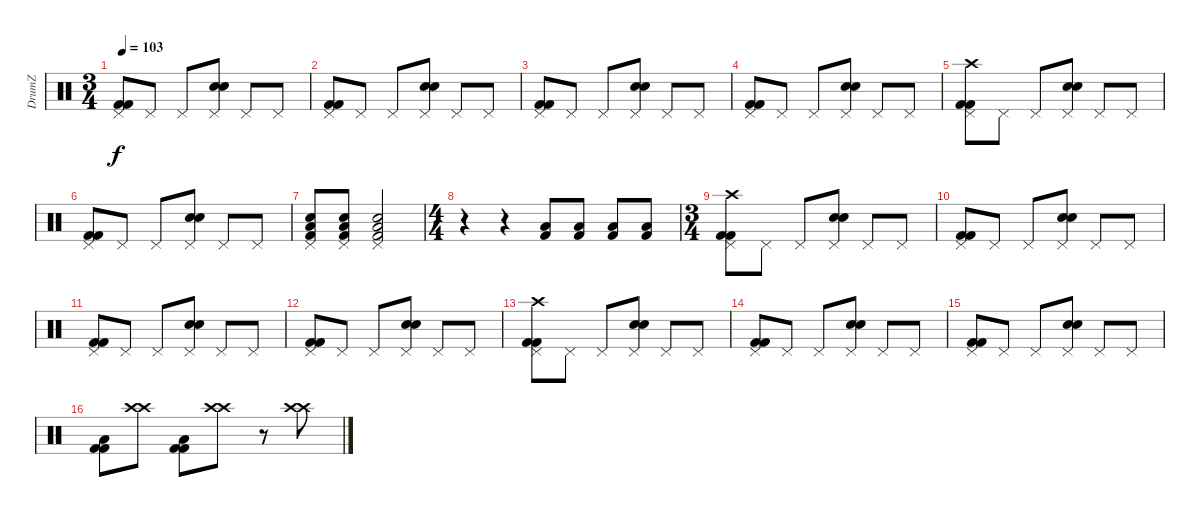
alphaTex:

\track ("DrumZ" "DrumZ") {instrument percussion}
\staff {score}
\articulation defaults
\ts (3 4)
\tempo 103
\clef neutral
\ks c
("Pedal Hi-Hat (hit)" "Kick (hit) 2" "Kick (hit) 2").8{dy f} "Pedal Hi-Hat (hit)".8 "Pedal Hi-Hat (hit)".8 ("Pedal Hi-Hat (hit)" "Electric Snare (hit)" "Electric Snare (hit)").8 "Pedal Hi-Hat (hit)".8 "Pedal Hi-Hat (hit)".8 |
("Pedal Hi-Hat (hit)" "Kick (hit) 2" "Kick (hit) 2").8 "Pedal Hi-Hat (hit)".8 "Pedal Hi-Hat (hit)".8 ("Pedal Hi-Hat (hit)" "Electric Snare (hit)" "Electric Snare (hit)").8 "Pedal Hi-Hat (hit)".8 "Pedal Hi-Hat (hit)".8 |
("Pedal Hi-Hat (hit)" "Kick (hit) 2" "Kick (hit) 2").8 "Pedal Hi-Hat (hit)".8 "Pedal Hi-Hat (hit)".8 ("Pedal Hi-Hat (hit)" "Electric Snare (hit)" "Electric Snare (hit)").8 "Pedal Hi-Hat (hit)".8 "Pedal Hi-Hat (hit)".8 |
("Pedal Hi-Hat (hit)" "Kick (hit) 2" "Kick (hit) 2").8 "Pedal Hi-Hat (hit)".8 "Pedal Hi-Hat (hit)".8 ("Pedal Hi-Hat (hit)" "Electric Snare (hit)" "Electric Snare (hit)").8 "Pedal Hi-Hat (hit)".8 "Pedal Hi-Hat (hit)".8 |
("Pedal Hi-Hat (hit)" "Crash high (hit)" "Kick (hit) 2" "Kick (hit) 2").8 "Pedal Hi-Hat (hit)".8 "Pedal Hi-Hat (hit)".8 ("Pedal Hi-Hat (hit)" "Electric Snare (hit)" "Electric Snare (hit)").8 "Pedal Hi-Hat (hit)".8 "Pedal Hi-Hat (hit)".8 |
("Pedal Hi-Hat (hit)" "Kick (hit) 2" "Kick (hit) 2").8 "Pedal Hi-Hat (hit)".8 "Pedal Hi-Hat (hit)".8 ("Pedal Hi-Hat (hit)" "Electric Snare (hit)" "Electric Snare (hit)").8 "Pedal Hi-Hat (hit)".8 "Pedal Hi-Hat (hit)".8 |
("Low Tom (hit)" "Pedal Hi-Hat (hit)" "Snare (hit) 2" "Kick (hit) 2").8 ("Low Tom (hit)" "Pedal Hi-Hat (hit)" "Snare (hit) 2" "Kick (hit) 2").8 ("Low Tom (hit)" "Pedal Hi-Hat (hit)" "Snare (hit) 2" "Kick (hit) 2").2 |
\ts (4 4)
r.4 r.4 ("Low Floor Tom (hit)" "Kick (hit) 2").8 ("Low Floor Tom (hit)" "Kick (hit) 2").8 ("Low Floor Tom (hit)" "Kick (hit) 2").8 ("Low Floor Tom (hit)" "Kick (hit) 2").8 |
\ts (3 4)
("Pedal Hi-Hat (hit)" "Crash high (hit)" "Kick (hit) 2" "Kick (hit) 2").8 "Pedal Hi-Hat (hit)".8 "Pedal Hi-Hat (hit)".8 ("Pedal Hi-Hat (hit)" "Electric Snare (hit)" "Electric Snare (hit)").8 "Pedal Hi-Hat (hit)".8 "Pedal Hi-Hat (hit)".8 |
("Pedal Hi-Hat (hit)" "Kick (hit) 2" "Kick (hit) 2").8 "Pedal Hi-Hat (hit)".8 "Pedal Hi-Hat (hit)".8 ("Pedal Hi-Hat (hit)" "Electric Snare (hit)" "Electric Snare (hit)").8 "Pedal Hi-Hat (hit)".8 "Pedal Hi-Hat (hit)".8 |
("Pedal Hi-Hat (hit)" "Kick (hit) 2" "Kick (hit) 2").8 "Pedal Hi-Hat (hit)".8 "Pedal Hi-Hat (hit)".8 ("Pedal Hi-Hat (hit)" "Electric Snare (hit)" "Electric Snare (hit)").8 "Pedal Hi-Hat (hit)".8 "Pedal Hi-Hat (hit)".8 |
("Pedal Hi-Hat (hit)" "Kick (hit) 2" "Kick (hit) 2").8 "Pedal Hi-Hat (hit)".8 "Pedal Hi-Hat (hit)".8 ("Pedal Hi-Hat (hit)" "Electric Snare (hit)" "Electric Snare (hit)").8 "Pedal Hi-Hat (hit)".8 "Pedal Hi-Hat (hit)".8 |
("Pedal Hi-Hat (hit)" "Crash high (hit)" "Kick (hit) 2" "Kick (hit) 2").8 "Pedal Hi-Hat (hit)".8 "Pedal Hi-Hat (hit)".8 ("Pedal Hi-Hat (hit)" "Electric Snare (hit)" "Electric Snare (hit)").8 "Pedal Hi-Hat (hit)".8 "Pedal Hi-Hat (hit)".8 |
("Pedal Hi-Hat (hit)" "Kick (hit) 2" "Kick (hit) 2").8 "Pedal Hi-Hat (hit)".8 "Pedal Hi-Hat (hit)".8 ("Pedal Hi-Hat (hit)" "Electric Snare (hit)" "Electric Snare (hit)").8 "Pedal Hi-Hat (hit)".8 "Pedal Hi-Hat (hit)".8 |
("Pedal Hi-Hat (hit)" "Kick (hit) 2" "Kick (hit) 2").8 "Pedal Hi-Hat (hit)".8 "Pedal Hi-Hat (hit)".8 ("Pedal Hi-Hat (hit)" "Electric Snare (hit)" "Electric Snare (hit)").8 "Pedal Hi-Hat (hit)".8 "Pedal Hi-Hat (hit)".8 |
("Low Floor Tom (hit)" "Kick (hit) 2" "Kick (hit) 2").8 ("Crash high (hit)" "Crash high (hit)").8 ("Low Floor Tom (hit)" "Kick (hit) 2" "Kick (hit) 2").8 ("Crash high (hit)" "Crash high (hit)").8 r.8 ("Crash high (hit)" "Crash high (hit)").8
